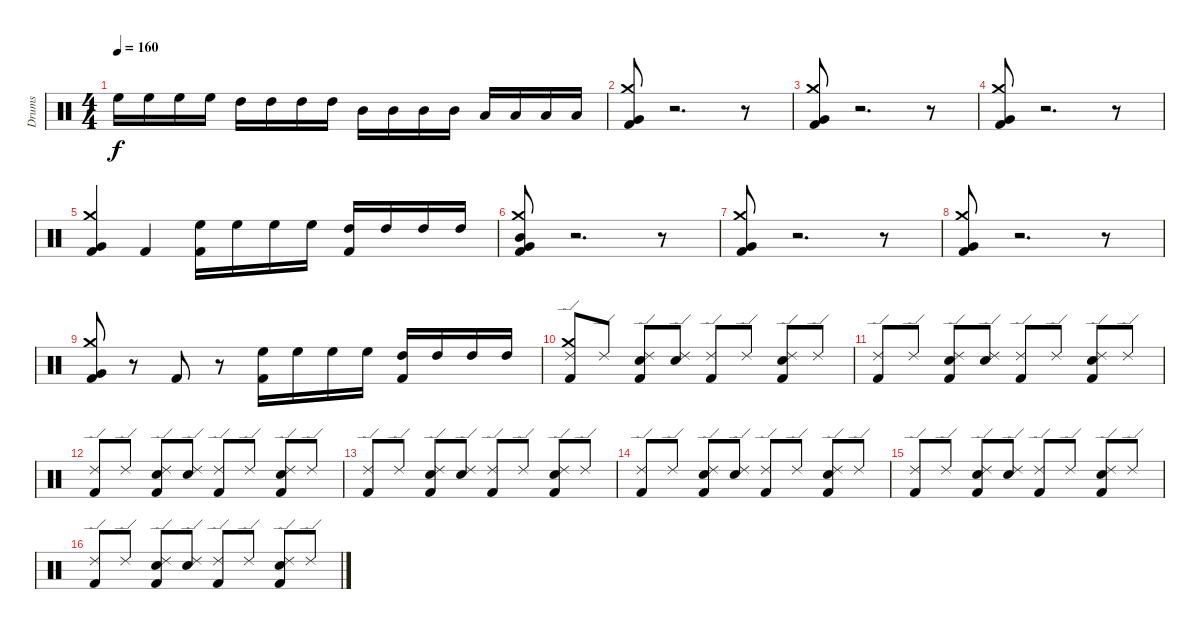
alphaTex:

\track ("Drums" "Drums") {instrument percussion}
\staff {score}
\articulation defaults
\ts (4 4)
\tempo 160
\clef neutral
\ks c "High Floor Tom (hit)".16{dy f} "High Floor Tom (hit)".16 "High Floor Tom (hit)".16 "High Floor Tom (hit)".16 "High Tom (hit)".16 "High Tom (hit)".16 "High Tom (hit)".16 "High Tom (hit)".16 "Mid Tom (hit)".16 "Mid Tom (hit)".16 "Mid Tom (hit)".16 "Mid Tom (hit)".16 "Low Tom (hit)".16 "Low Tom (hit)".16 "Low Tom (hit)".16 "Low Tom (hit)".16
|
("Kick (hit) 2" "Crash medium (hit)" "Very Low Tom (hit)").8 r.2{d} r.8 |
("Kick (hit) 2" "Very Low Tom (hit)" "Crash medium (hit)").8 r.2{d} r.8 |
("Kick (hit) 2" "Very Low Tom (hit)" "Crash medium (hit)").8 r.2{d} r.8 |
("Kick (hit) 2" "Very Low Tom (hit)" "Crash medium (hit)").4 "Kick (hit) 2".4 ("Kick (hit) 2" "High Floor Tom (hit)").16 "High Floor Tom (hit)".16 "High Floor Tom (hit)".16 "High Floor Tom (hit)".16 ("Kick (hit) 2" "High Tom (hit)").16 "High Tom (hit)".16 "High Tom (hit)".16 "High Tom (hit)".16 |
("Kick (hit) 2" "Mid Tom (hit)" "Very Low Tom (hit)" "Crash medium (hit)").8 r.2{d} r.8 |
("Kick (hit) 2" "Crash medium (hit)" "Very Low Tom (hit)").8 r.2{d} r.8 |
("Kick (hit) 2" "Crash medium (hit)" "Very Low Tom (hit)").8 r.2{d} r.8 |
("Kick (hit) 2" "Crash medium (hit)" "Very Low Tom (hit)").8 r.8 "Kick (hit) 2".8 r.8 ("Kick (hit) 2" "High Floor Tom (hit)").16 "High Floor Tom (hit)".16 "High Floor Tom (hit)".16 "High Floor Tom (hit)".16 ("Kick (hit) 2" "High Tom (hit)").16 "High Tom (hit)".16 "High Tom (hit)".16 "High Tom (hit)".16 |
("Kick (hit) 2" "Crash medium (hit)" "Ride (edge) 2").8 "Ride (edge) 2".8 ("Kick (hit) 2" "Ride (edge) 2" "Electric Snare (hit)").8 ("Ride (edge) 2" "Electric Snare (hit)").8 ("Kick (hit) 2" "Ride (edge) 2").8 "Ride (edge) 2".8 ("Kick (hit) 2" "Ride (edge) 2" "Electric Snare (hit)").8 "Ride (edge) 2".8 |
("Kick (hit) 2" "Ride (edge) 2").8 "Ride (edge) 2".8 ("Kick (hit) 2" "Ride (edge) 2" "Electric Snare (hit)").8 ("Ride (edge) 2" "Electric Snare (hit)").8 ("Kick (hit) 2" "Ride (edge) 2").8 "Ride (edge) 2".8 ("Kick (hit) 2" "Ride (edge) 2" "Electric Snare (hit)").8 "Ride (edge) 2".8 |
("Kick (hit) 2" "Ride (edge) 2").8 "Ride (edge) 2".8 ("Kick (hit) 2" "Ride (edge) 2" "Electric Snare (hit)").8 ("Ride (edge) 2" "Electric Snare (hit)").8 ("Kick (hit) 2" "Ride (edge) 2").8 "Ride (edge) 2".8 ("Kick (hit) 2" "Ride (edge) 2" "Electric Snare (hit)").8 "Ride (edge) 2".8 |
("Kick (hit) 2" "Ride (edge) 2").8 "Ride (edge) 2".8 ("Kick (hit) 2" "Ride (edge) 2" "Electric Snare (hit)").8 ("Ride (edge) 2" "Electric Snare (hit)").8 ("Kick (hit) 2" "Ride (edge) 2").8 "Ride (edge) 2".8 ("Kick (hit) 2" "Ride (edge) 2" "Electric Snare (hit)").8 "Ride (edge) 2".8 |
("Kick (hit) 2" "Ride (edge) 2").8 "Ride (edge) 2".8 ("Kick (hit) 2" "Ride (edge) 2" "Electric Snare (hit)").8 ("Ride (edge) 2" "Electric Snare (hit)").8 ("Kick (hit) 2" "Ride (edge) 2").8 "Ride (edge) 2".8 ("Kick (hit) 2" "Ride (edge) 2" "Electric Snare (hit)").8 "Ride (edge) 2".8 |
("Kick (hit) 2" "Ride (edge) 2").8 "Ride (edge) 2".8 ("Kick (hit) 2" "Ride (edge) 2" "Electric Snare (hit)").8 ("Ride (edge) 2" "Electric Snare (hit)").8 ("Kick (hit) 2" "Ride (edge) 2").8 "Ride (edge) 2".8 ("Kick (hit) 2" "Ride (edge) 2" "Electric Snare (hit)").8 "Ride (edge) 2".8 |
("Kick (hit) 2" "Ride (edge) 2").8 "Ride (edge) 2".8 ("Kick (hit) 2" "Ride (edge) 2" "Electric Snare (hit)").8 ("Ride (edge) 2" "Electric Snare (hit)").8 ("Kick (hit) 2" "Ride (edge) 2").8 "Ride (edge) 2".8 ("Kick (hit) 2" "Ride (edge) 2" "Electric Snare (hit)").8 "Ride (edge) 2".8
